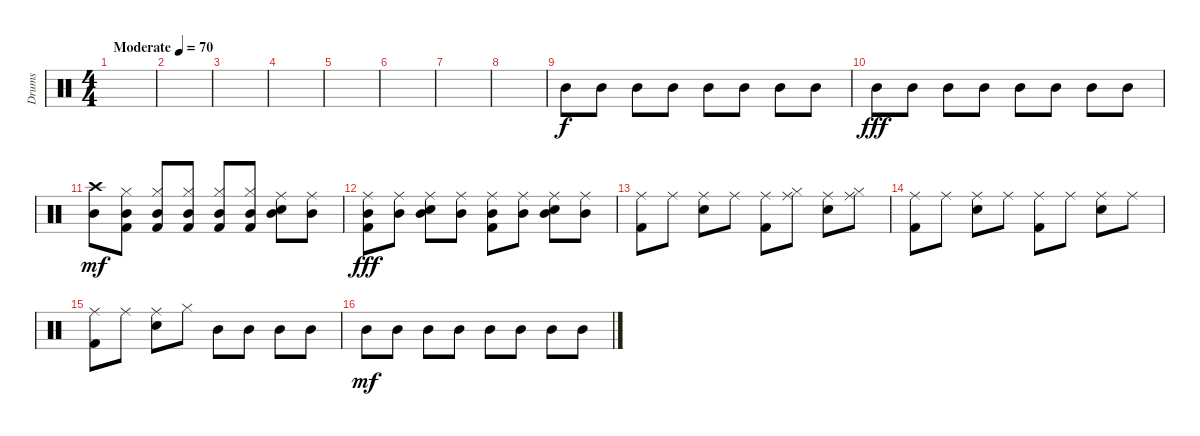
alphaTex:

\track ("Drums" "Drums") {instrument percussion}
\staff {score}
\articulation defaults
\ts (4 4)
\tempo (70 "Moderate")
\clef neutral
\ks c
|
|
|
|
|
|
|
|
"Mid Tom (hit)".8 "Mid Tom (hit)".8 "Mid Tom (hit)".8 "Mid Tom (hit)".8 "Mid Tom (hit)".8{dy f} "Mid Tom (hit)".8 "Mid Tom (hit)".8 "Mid Tom (hit)".8 |
"Mid Tom (hit)".8{dy fff} "Mid Tom (hit)".8 "Mid Tom (hit)".8 "Mid Tom (hit)".8 "Mid Tom (hit)".8 "Mid Tom (hit)".8 "Mid Tom (hit)".8 "Mid Tom (hit)".8 |
("Mid Tom (hit)" "Crash high (hit)").8{dy mf} ("Hi-Hat (closed)" "Kick (hit) 2" "Mid Tom (hit)").8 ("Hi-Hat (closed)" "Kick (hit) 2" "Mid Tom (hit)").8 ("Hi-Hat (closed)" "Kick (hit) 2" "Mid Tom (hit)").8 ("Hi-Hat (closed)" "Kick (hit) 2" "Mid Tom (hit)").8 ("Hi-Hat (closed)" "Kick (hit) 2" "Mid Tom (hit)").8 ("Ride (middle)" "Snare (hit) 2" "Mid Tom (hit)").8 ("Ride (middle)" "Mid Tom (hit)").8 |
("Ride (middle)" "Kick (hit) 2" "Mid Tom (hit)").8{dy fff} ("Ride (middle)" "Mid Tom (hit)").8 ("Ride (middle)" "Snare (hit) 2" "Mid Tom (hit)").8 ("Ride (middle)" "Mid Tom (hit)").8 ("Ride (middle)" "Kick (hit) 2" "Mid Tom (hit)").8 ("Ride (middle)" "Mid Tom (hit)").8 ("Ride (middle)" "Snare (hit) 2" "Mid Tom (hit)").8 ("Ride (middle)" "Mid Tom (hit)").8 |
("Ride (middle)" "Kick (hit) 2").8 "Ride (middle)".8 ("Ride (middle)" "Snare (hit) 2").8 "Ride (middle)".8 ("Ride (middle)" "Kick (hit) 2").8 ("Ride (middle)" "Hi-Hat (closed)").8 ("Ride (middle)" "Snare (hit) 2").8 ("Ride (middle)" "Hi-Hat (closed)").8 |
("Ride (middle)" "Kick (hit) 2").8 "Ride (middle)".8 ("Ride (middle)" "Snare (hit) 2").8 "Ride (middle)".8 ("Ride (middle)" "Kick (hit) 2").8 "Ride (middle)".8 ("Ride (middle)" "Snare (hit) 2").8 "Ride (middle)".8 |
("Ride (middle)" "Kick (hit) 2").8 "Ride (middle)".8 ("Ride (middle)" "Snare (hit) 2").8 "Hi-Hat (closed)".8 "Mid Tom (hit)".8 "Mid Tom (hit)".8 "Mid Tom (hit)".8 "Mid Tom (hit)".8 |
"Mid Tom (hit)".8{dy mf} "Mid Tom (hit)".8 "Mid Tom (hit)".8 "Mid Tom (hit)".8 "Mid Tom (hit)".8 "Mid Tom (hit)".8 "Mid Tom (hit)".8 "Mid Tom (hit)".8
